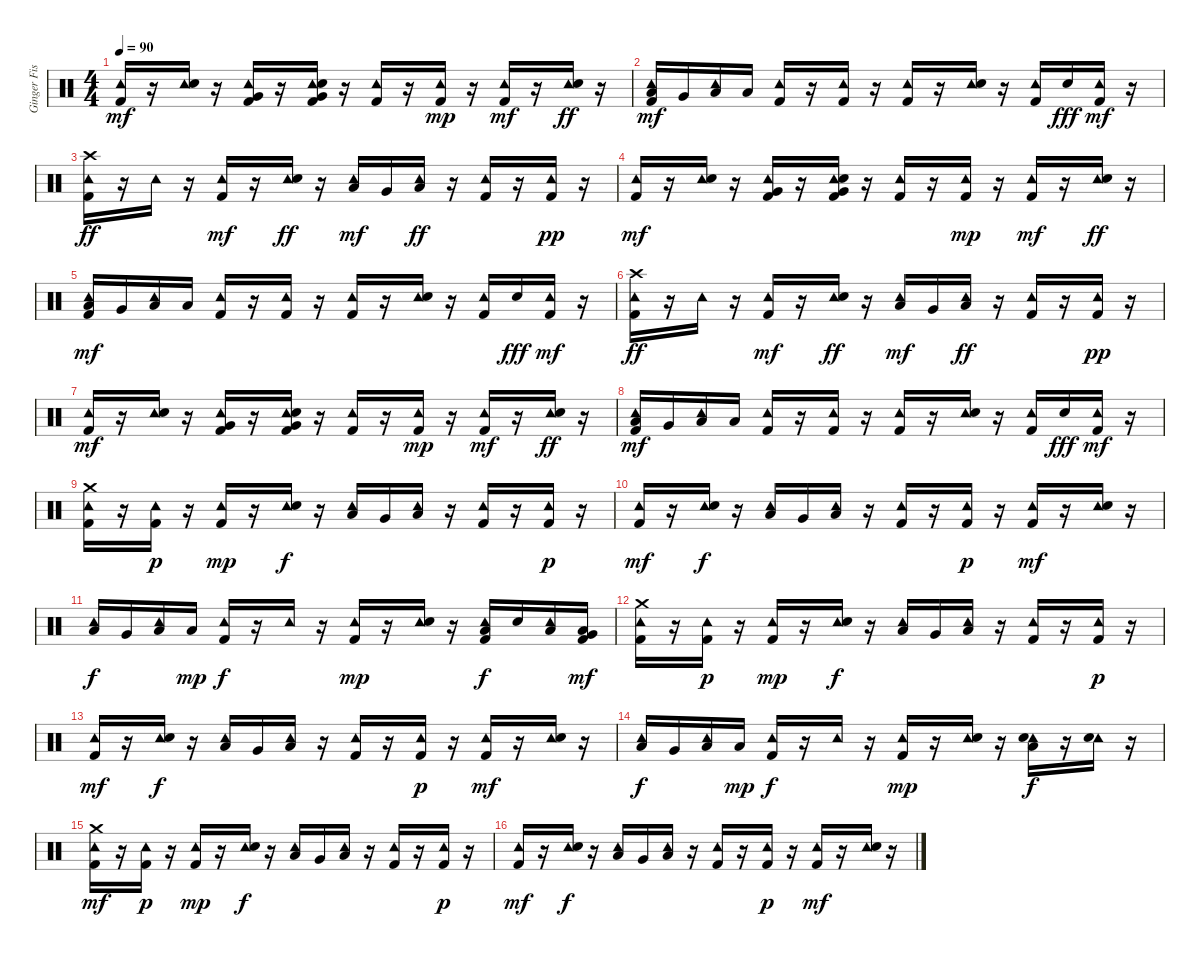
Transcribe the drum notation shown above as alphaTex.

\track ("Ginger Fish" "Ginger Fis") {instrument percussion}
\staff {score}
\articulation defaults
\ts (4 4)
\tempo 90
\clef neutral
\ks c
("Tambourine (hit)" "Kick (hit) 2").16{dy mf} r.16 ("Tambourine (hit)" "Electric Snare (hit)").16 r.16 ("Tambourine (hit)" "Very Low Tom (hit)" "Kick (hit) 2").16 r.16 ("Tambourine (hit)" "Very Low Tom (hit)" "Electric Snare (hit)" "Kick (hit) 2").16 r.16 ("Tambourine (hit)" "Kick (hit) 2").16 r.16 ("Tambourine (hit)" "Kick (hit) 2").16{dy mp} r.16 ("Tambourine (hit)" "Kick (hit) 2").16{dy mf} r.16 ("Tambourine (hit)" "Electric Snare (hit)").16{dy ff} r.16 |
("Tambourine (hit)" "Kick (hit) 2" "Low Floor Tom (hit)").16{dy mf} "Very Low Tom (hit)".16 ("Tambourine (hit)" "Low Floor Tom (hit)").16 "Low Tom (hit)".16 ("Tambourine (hit)" "Kick (hit) 2").16 r.16 ("Tambourine (hit)" "Kick (hit) 2").16 r.16 ("Tambourine (hit)" "Kick (hit) 2").16 r.16 ("Tambourine (hit)" "Electric Snare (hit)").16 r.16 ("Tambourine (hit)" "Kick (hit) 2").16 "Electric Snare (hit)".16{dy fff} ("Tambourine (hit)" "Kick (hit) 2").16{dy mf} r.16 |
("Tambourine (hit)" "Crash high (hit)" "Kick (hit) 2").16{dy ff} r.16 "Tambourine (hit)".16 r.16 ("Tambourine (hit)" "Kick (hit) 2").16{dy mf} r.16 ("Tambourine (hit)" "Electric Snare (hit)").16{dy ff} r.16 ("Tambourine (hit)" "Low Floor Tom (hit)").16{dy mf} "Very Low Tom (hit)".16 ("Tambourine (hit)" "Low Floor Tom (hit)").16{dy ff} r.16 ("Tambourine (hit)" "Kick (hit) 2").16 r.16 ("Tambourine (hit)" "Kick (hit) 2").16{dy pp} r.16 |
("Tambourine (hit)" "Kick (hit) 2").16{dy mf} r.16 ("Tambourine (hit)" "Electric Snare (hit)").16 r.16 ("Tambourine (hit)" "Very Low Tom (hit)" "Kick (hit) 2").16 r.16 ("Tambourine (hit)" "Very Low Tom (hit)" "Electric Snare (hit)" "Kick (hit) 2").16 r.16 ("Tambourine (hit)" "Kick (hit) 2").16 r.16 ("Tambourine (hit)" "Kick (hit) 2").16{dy mp} r.16 ("Tambourine (hit)" "Kick (hit) 2").16{dy mf} r.16 ("Tambourine (hit)" "Electric Snare (hit)").16{dy ff} r.16 |
("Tambourine (hit)" "Kick (hit) 2" "Low Floor Tom (hit)").16{dy mf} "Very Low Tom (hit)".16 ("Tambourine (hit)" "Low Floor Tom (hit)").16 "Low Tom (hit)".16 ("Tambourine (hit)" "Kick (hit) 2").16 r.16 ("Tambourine (hit)" "Kick (hit) 2").16 r.16 ("Tambourine (hit)" "Kick (hit) 2").16 r.16 ("Tambourine (hit)" "Electric Snare (hit)").16 r.16 ("Tambourine (hit)" "Kick (hit) 2").16 "Electric Snare (hit)".16{dy fff} ("Tambourine (hit)" "Kick (hit) 2").16{dy mf} r.16 |
("Tambourine (hit)" "Crash high (hit)" "Kick (hit) 2").16{dy ff} r.16 "Tambourine (hit)".16 r.16 ("Tambourine (hit)" "Kick (hit) 2").16{dy mf} r.16 ("Tambourine (hit)" "Electric Snare (hit)").16{dy ff} r.16 ("Tambourine (hit)" "Low Floor Tom (hit)").16{dy mf} "Very Low Tom (hit)".16 ("Tambourine (hit)" "Low Floor Tom (hit)").16{dy ff} r.16 ("Tambourine (hit)" "Kick (hit) 2").16 r.16 ("Tambourine (hit)" "Kick (hit) 2").16{dy pp} r.16 |
("Tambourine (hit)" "Kick (hit) 2").16{dy mf} r.16 ("Tambourine (hit)" "Electric Snare (hit)").16 r.16 ("Tambourine (hit)" "Very Low Tom (hit)" "Kick (hit) 2").16 r.16 ("Tambourine (hit)" "Very Low Tom (hit)" "Electric Snare (hit)" "Kick (hit) 2").16 r.16 ("Tambourine (hit)" "Kick (hit) 2").16 r.16 ("Tambourine (hit)" "Kick (hit) 2").16{dy mp} r.16 ("Tambourine (hit)" "Kick (hit) 2").16{dy mf} r.16 ("Tambourine (hit)" "Electric Snare (hit)").16{dy ff} r.16 |
("Tambourine (hit)" "Kick (hit) 2" "Low Floor Tom (hit)").16{dy mf} "Very Low Tom (hit)".16 ("Tambourine (hit)" "Low Floor Tom (hit)").16 "Low Tom (hit)".16 ("Tambourine (hit)" "Kick (hit) 2").16 r.16 ("Tambourine (hit)" "Kick (hit) 2").16 r.16 ("Tambourine (hit)" "Kick (hit) 2").16 r.16 ("Tambourine (hit)" "Electric Snare (hit)").16 r.16 ("Tambourine (hit)" "Kick (hit) 2").16 "Electric Snare (hit)".16{dy fff} ("Tambourine (hit)" "Kick (hit) 2").16{dy mf} r.16 |
("Tambourine (hit)" "Crash medium (hit)" "Kick (hit) 2").16 r.16 ("Tambourine (hit)" "Kick (hit) 2").16{dy p} r.16 ("Tambourine (hit)" "Kick (hit) 2").16{dy mp} r.16 ("Tambourine (hit)" "Electric Snare (hit)").16{dy f} r.16 ("Tambourine (hit)" "Low Floor Tom (hit)").16 "Very Low Tom (hit)".16 ("Tambourine (hit)" "Low Floor Tom (hit)").16 r.16 ("Tambourine (hit)" "Kick (hit) 2").16 r.16 ("Tambourine (hit)" "Kick (hit) 2").16{dy p} r.16 |
("Tambourine (hit)" "Kick (hit) 2").16{dy mf} r.16 ("Tambourine (hit)" "Electric Snare (hit)").16{dy f} r.16 ("Tambourine (hit)" "Low Floor Tom (hit)").16 "Very Low Tom (hit)".16 ("Tambourine (hit)" "Low Floor Tom (hit)").16 r.16 ("Tambourine (hit)" "Kick (hit) 2").16 r.16 ("Tambourine (hit)" "Kick (hit) 2").16{dy p} r.16 ("Tambourine (hit)" "Kick (hit) 2").16{dy mf} r.16 ("Tambourine (hit)" "Electric Snare (hit)").16 r.16 |
("Tambourine (hit)" "Low Floor Tom (hit)").16{dy f} "Very Low Tom (hit)".16 ("Tambourine (hit)" "Low Floor Tom (hit)").16 "Low Tom (hit)".16{dy mp} ("Tambourine (hit)" "Kick (hit) 2").16{dy f} r.16 "Tambourine (hit)".16 r.16 ("Tambourine (hit)" "Kick (hit) 2").16{dy mp} r.16 ("Tambourine (hit)" "Electric Snare (hit)").16 r.16 ("Tambourine (hit)" "Kick (hit) 2" "Low Floor Tom (hit)").16{dy f} "Electric Snare (hit)".16 ("Tambourine (hit)" "Low Floor Tom (hit)").16 ("Kick (hit) 2" "Low Tom (hit)" "Very Low Tom (hit)").16{dy mf} |
("Tambourine (hit)" "Crash medium (hit)" "Kick (hit) 2").16 r.16 ("Tambourine (hit)" "Kick (hit) 2").16{dy p} r.16 ("Tambourine (hit)" "Kick (hit) 2").16{dy mp} r.16 ("Tambourine (hit)" "Electric Snare (hit)").16{dy f} r.16 ("Tambourine (hit)" "Low Floor Tom (hit)").16 "Very Low Tom (hit)".16 ("Tambourine (hit)" "Low Floor Tom (hit)").16 r.16 ("Tambourine (hit)" "Kick (hit) 2").16 r.16 ("Tambourine (hit)" "Kick (hit) 2").16{dy p} r.16 |
("Tambourine (hit)" "Kick (hit) 2").16{dy mf} r.16 ("Tambourine (hit)" "Electric Snare (hit)").16{dy f} r.16 ("Tambourine (hit)" "Low Floor Tom (hit)").16 "Very Low Tom (hit)".16 ("Tambourine (hit)" "Low Floor Tom (hit)").16 r.16 ("Tambourine (hit)" "Kick (hit) 2").16 r.16 ("Tambourine (hit)" "Kick (hit) 2").16{dy p} r.16 ("Tambourine (hit)" "Kick (hit) 2").16{dy mf} r.16 ("Tambourine (hit)" "Electric Snare (hit)").16 r.16 |
("Tambourine (hit)" "Low Floor Tom (hit)").16{dy f} "Very Low Tom (hit)".16 ("Tambourine (hit)" "Low Floor Tom (hit)").16 "Low Tom (hit)".16{dy mp} ("Tambourine (hit)" "Kick (hit) 2").16{dy f} r.16 "Tambourine (hit)".16 r.16 ("Tambourine (hit)" "Kick (hit) 2").16{dy mp} r.16 ("Tambourine (hit)" "Electric Snare (hit)").16 r.16 ("Tambourine (hit)" "Electric Snare (hit)" "Low Floor Tom (hit)").16{dy f} r.16 ("Tambourine (hit)" "Electric Snare (hit)").16 r.16 |
("Tambourine (hit)" "Crash medium (hit)" "Kick (hit) 2").16{dy mf} r.16 ("Tambourine (hit)" "Kick (hit) 2").16{dy p} r.16 ("Tambourine (hit)" "Kick (hit) 2").16{dy mp} r.16 ("Tambourine (hit)" "Electric Snare (hit)").16{dy f} r.16 ("Tambourine (hit)" "Low Floor Tom (hit)").16 "Very Low Tom (hit)".16 ("Tambourine (hit)" "Low Floor Tom (hit)").16 r.16 ("Tambourine (hit)" "Kick (hit) 2").16 r.16 ("Tambourine (hit)" "Kick (hit) 2").16{dy p} r.16 |
("Tambourine (hit)" "Kick (hit) 2").16{dy mf} r.16 ("Tambourine (hit)" "Electric Snare (hit)").16{dy f} r.16 ("Tambourine (hit)" "Low Floor Tom (hit)").16 "Very Low Tom (hit)".16 ("Tambourine (hit)" "Low Floor Tom (hit)").16 r.16 ("Tambourine (hit)" "Kick (hit) 2").16 r.16 ("Tambourine (hit)" "Kick (hit) 2").16{dy p} r.16 ("Tambourine (hit)" "Kick (hit) 2").16{dy mf} r.16 ("Tambourine (hit)" "Electric Snare (hit)").16 r.16
